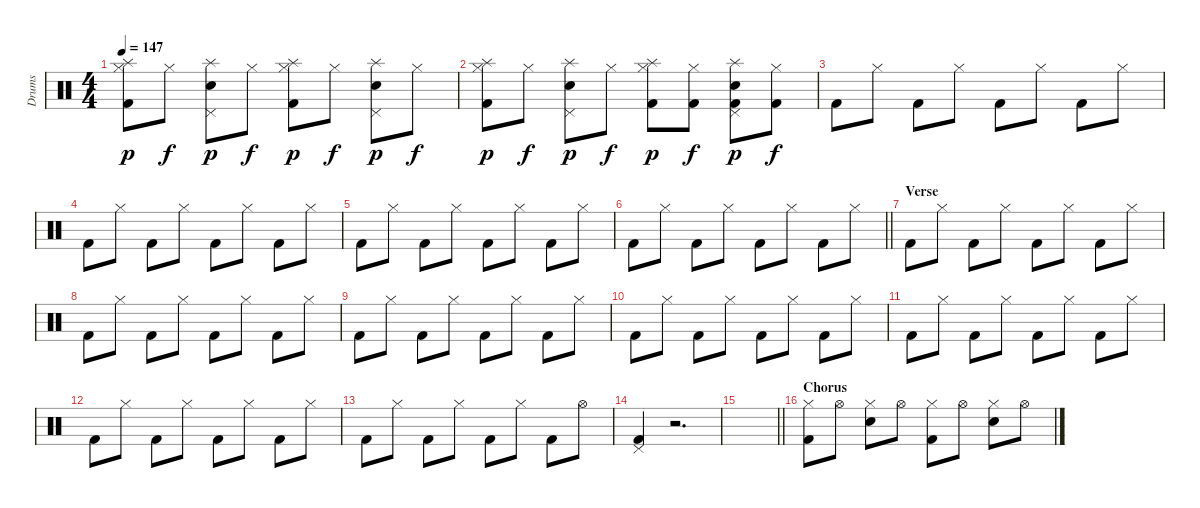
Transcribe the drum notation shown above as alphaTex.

\track ("Drums" "Drums") {instrument percussion}
\staff {score}
\articulation defaults
\ts (4 4)
\tempo 147
\clef neutral
\ks c
("Splash (hit)" "Hi-Hat (closed)" "Kick (hit) 2").8{dy p} "Hi-Hat (closed)".8{dy f} ("Splash (hit)" "Pedal Hi-Hat (hit)" "Snare (hit) 2").8{dy p} "Hi-Hat (closed)".8{dy f} ("Splash (hit)" "Hi-Hat (closed)" "Kick (hit) 2").8{dy p} "Hi-Hat (closed)".8{dy f} ("Splash (hit)" "Pedal Hi-Hat (hit)" "Snare (hit) 2").8{dy p} "Hi-Hat (closed)".8{dy f} |
("Splash (hit)" "Hi-Hat (closed)" "Kick (hit) 2").8{dy p} "Hi-Hat (closed)".8{dy f} ("Splash (hit)" "Pedal Hi-Hat (hit)" "Snare (hit) 2").8{dy p} "Hi-Hat (closed)".8{dy f} ("Splash (hit)" "Hi-Hat (closed)" "Kick (hit) 2").8{dy p} ("Hi-Hat (closed)" "Kick (hit) 2").8{dy f} ("Splash (hit)" "Pedal Hi-Hat (hit)" "Snare (hit) 2" "Kick (hit) 2").8{dy p} ("Hi-Hat (closed)" "Kick (hit) 2").8{dy f} |
"Kick (hit) 2".8 "Hi-Hat (closed)".8 "Kick (hit) 2".8 "Hi-Hat (closed)".8 "Kick (hit) 2".8 "Hi-Hat (closed)".8 "Kick (hit) 2".8 "Hi-Hat (closed)".8 |
"Kick (hit) 2".8 "Hi-Hat (closed)".8 "Kick (hit) 2".8 "Hi-Hat (closed)".8 "Kick (hit) 2".8 "Hi-Hat (closed)".8 "Kick (hit) 2".8 "Hi-Hat (closed)".8 |
"Kick (hit) 2".8 "Hi-Hat (closed)".8 "Kick (hit) 2".8 "Hi-Hat (closed)".8 "Kick (hit) 2".8 "Hi-Hat (closed)".8 "Kick (hit) 2".8 "Hi-Hat (closed)".8 |
\barLineRight lightlight "Kick (hit) 2".8 "Hi-Hat (closed)".8 "Kick (hit) 2".8 "Hi-Hat (closed)".8 "Kick (hit) 2".8 "Hi-Hat (closed)".8 "Kick (hit) 2".8 "Hi-Hat (closed)".8
|
\section ("" "Verse")
"Kick (hit) 2".8 "Hi-Hat (closed)".8 "Kick (hit) 2".8 "Hi-Hat (closed)".8 "Kick (hit) 2".8 "Hi-Hat (closed)".8 "Kick (hit) 2".8 "Hi-Hat (closed)".8 |
"Kick (hit) 2".8 "Hi-Hat (closed)".8 "Kick (hit) 2".8 "Hi-Hat (closed)".8 "Kick (hit) 2".8 "Hi-Hat (closed)".8 "Kick (hit) 2".8 "Hi-Hat (closed)".8 |
"Kick (hit) 2".8 "Hi-Hat (closed)".8 "Kick (hit) 2".8 "Hi-Hat (closed)".8 "Kick (hit) 2".8 "Hi-Hat (closed)".8 "Kick (hit) 2".8 "Hi-Hat (closed)".8 |
"Kick (hit) 2".8 "Hi-Hat (closed)".8 "Kick (hit) 2".8 "Hi-Hat (closed)".8 "Kick (hit) 2".8 "Hi-Hat (closed)".8 "Kick (hit) 2".8 "Hi-Hat (closed)".8 |
"Kick (hit) 2".8 "Hi-Hat (closed)".8 "Kick (hit) 2".8 "Hi-Hat (closed)".8 "Kick (hit) 2".8 "Hi-Hat (closed)".8 "Kick (hit) 2".8 "Hi-Hat (closed)".8 |
"Kick (hit) 2".8 "Hi-Hat (closed)".8 "Kick (hit) 2".8 "Hi-Hat (closed)".8 "Kick (hit) 2".8 "Hi-Hat (closed)".8 "Kick (hit) 2".8 "Hi-Hat (closed)".8 |
"Kick (hit) 2".8 "Hi-Hat (closed)".8 "Kick (hit) 2".8 "Hi-Hat (closed)".8 "Kick (hit) 2".8 "Hi-Hat (closed)".8 "Kick (hit) 2".8 "Hi-Hat (open)".8 |
("Pedal Hi-Hat (hit)" "Kick (hit) 2").4 r.2{d} |
\barLineRight lightlight
|
\section ("" "Chorus")
("Hi-Hat (closed)" "Kick (hit) 2").8 "Hi-Hat (open)".8 ("Hi-Hat (closed)" "Snare (hit) 2").8 "Hi-Hat (open)".8 ("Hi-Hat (closed)" "Kick (hit) 2").8 "Hi-Hat (open)".8 ("Hi-Hat (closed)" "Snare (hit) 2").8 "Hi-Hat (open)".8
